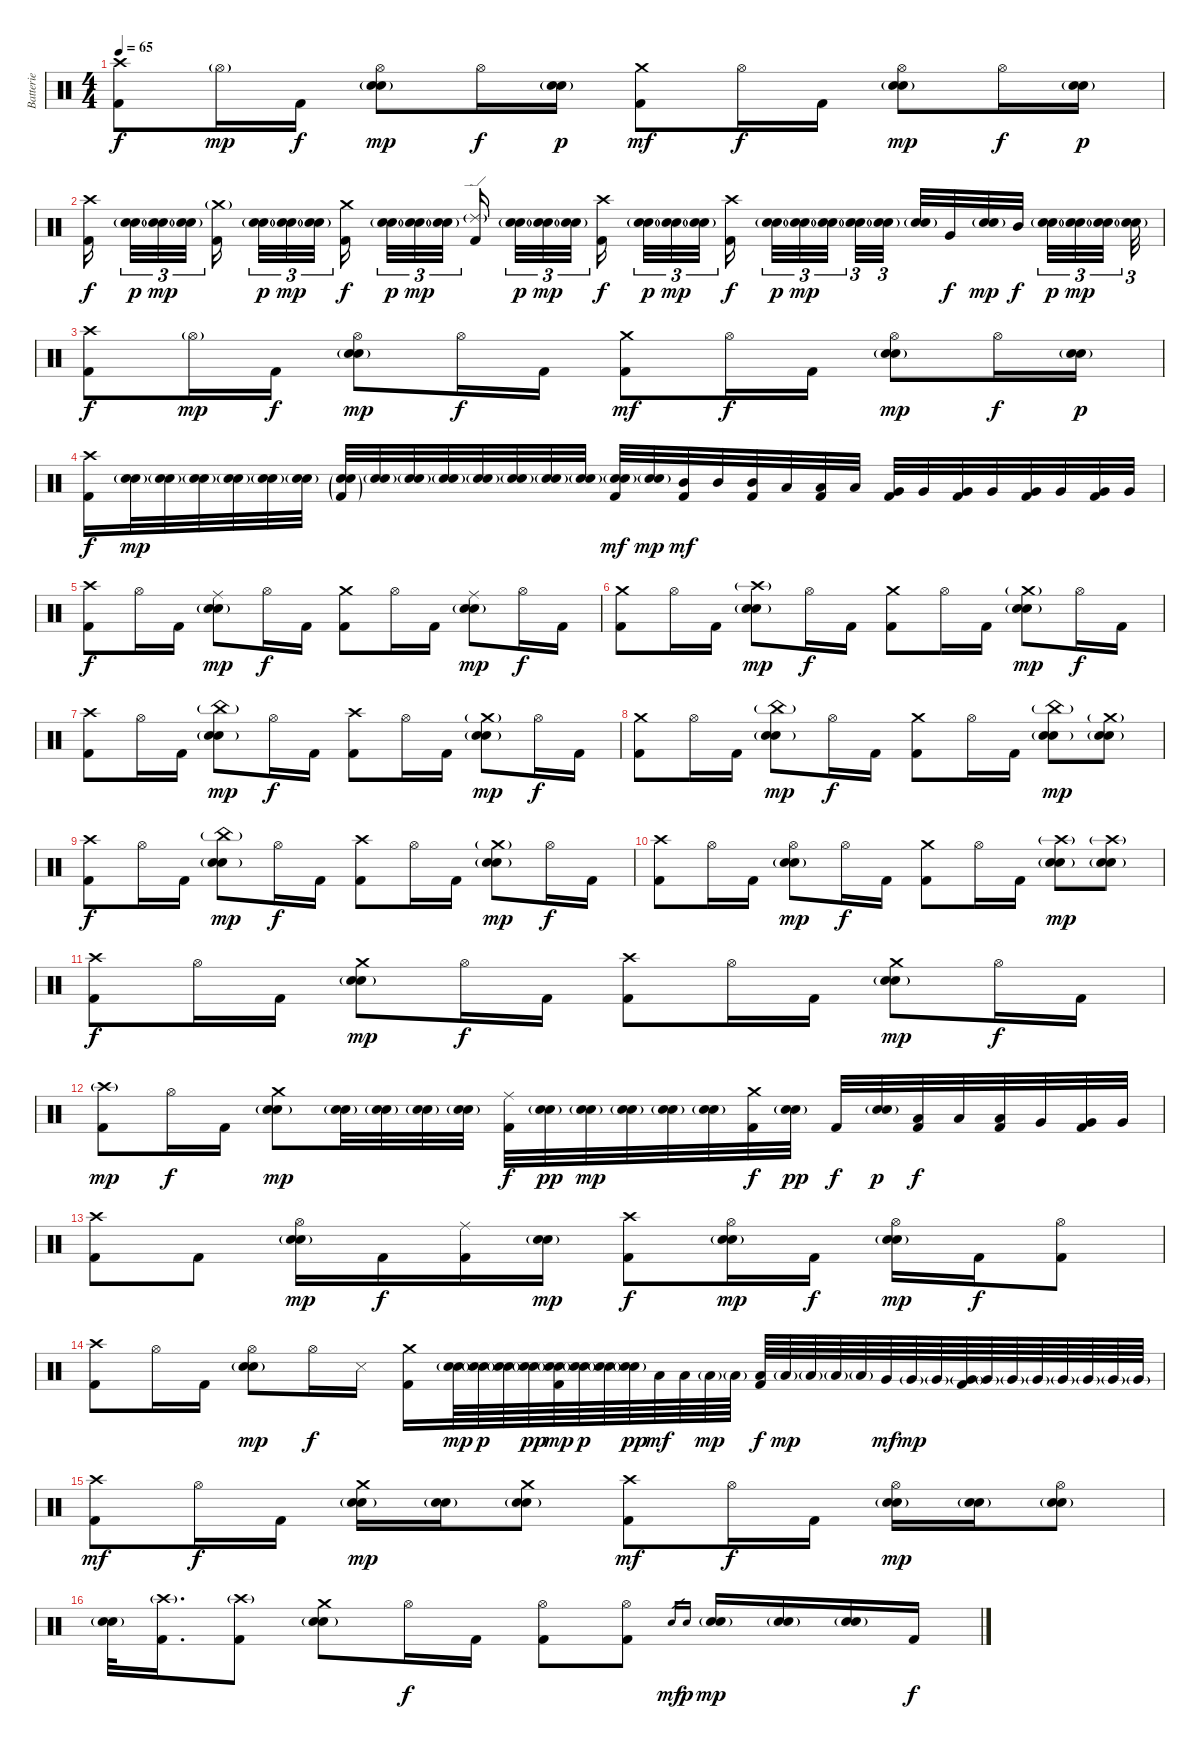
\track ("Batterie" "Batterie") {instrument percussion}
\staff {score}
\articulation defaults
\ts (4 4)
\tempo 65
\clef neutral
\ks c
("Crash high (hit)" "Kick (hit) 2").8{dy f} "Hi-Hat (open)"{g}.16{dy mp} "Kick (hit) 2".16{dy f} ("Hi-Hat (open)" "Electric Snare (hit)" "Snare (hit) 2"{g}).8{dy mp} "Hi-Hat (open)".16{dy f} ("Electric Snare (hit)" "Snare (hit) 2"{g}).16{dy p} ("Crash medium (hit)" "Kick (hit) 2").8{dy mf} "Hi-Hat (open)".16{dy f} "Kick (hit) 2".16 ("Hi-Hat (open)" "Electric Snare (hit)" "Snare (hit) 2"{g}).8{dy mp} "Hi-Hat (open)".16{dy f} ("Electric Snare (hit)" "Snare (hit) 2"{g}).16{dy p} |
("Crash high (hit)" "Kick (hit) 2").16{dy f} ("Electric Snare (hit)" "Snare (hit) 2"{g}).32{tu (3 2) dy p} ("Electric Snare (hit)" "Snare (hit) 2"{g}).32{tu (3 2) dy mp} ("Electric Snare (hit)" "Snare (hit) 2"{g}).32{tu (3 2)} ("Crash medium (hit)"{g} "Kick (hit) 2").16 ("Electric Snare (hit)" "Snare (hit) 2"{g}).32{tu (3 2) dy p} ("Electric Snare (hit)" "Snare (hit) 2"{g}).32{tu (3 2) dy mp} ("Electric Snare (hit)" "Snare (hit) 2"{g}).32{tu (3 2)} ("Crash medium (hit)" "Kick (hit) 2").16{dy f} ("Electric Snare (hit)" "Snare (hit) 2"{g}).32{tu (3 2) dy p} ("Electric Snare (hit)" "Snare (hit) 2"{g}).32{tu (3 2) dy mp} ("Electric Snare (hit)" "Snare (hit) 2"{g}).32{tu (3 2)} ("Ride (edge) 2"{g} "Kick (hit) 2").16 ("Electric Snare (hit)" "Snare (hit) 2"{g}).32{tu (3 2) dy p} ("Electric Snare (hit)" "Snare (hit) 2"{g}).32{tu (3 2) dy mp} ("Electric Snare (hit)" "Snare (hit) 2"{g}).32{tu (3 2)} ("Crash high (hit)" "Kick (hit) 2").16{dy f} ("Electric Snare (hit)" "Snare (hit) 2"{g}).32{tu (3 2) dy p} ("Electric Snare (hit)" "Snare (hit) 2"{g}).32{tu (3 2) dy mp} ("Electric Snare (hit)" "Snare (hit) 2"{g}).32{tu (3 2)} ("Crash high (hit)" "Kick (hit) 2").16{dy f} ("Electric Snare (hit)" "Snare (hit) 2"{g}).32{tu (3 2) dy p} ("Electric Snare (hit)" "Snare (hit) 2"{g}).32{tu (3 2) dy mp} ("Electric Snare (hit)" "Snare (hit) 2"{g}).32{tu (3 2)} ("Electric Snare (hit)" "Snare (hit) 2"{g}).32{tu (3 2)} ("Electric Snare (hit)" "Snare (hit) 2"{g}).32{tu (3 2)} ("Electric Snare (hit)" "Snare (hit) 2"{g}).32 "Very Low Tom (hit)".32{dy f} ("Electric Snare (hit)" "Snare (hit) 2"{g}).32{dy mp} "Mid Tom (hit)".32{dy f} ("Electric Snare (hit)" "Snare (hit) 2"{g}).32{tu (3 2) dy p} ("Electric Snare (hit)" "Snare (hit) 2"{g}).32{tu (3 2) dy mp} ("Electric Snare (hit)" "Snare (hit) 2"{g}).32{tu (3 2)} ("Electric Snare (hit)" "Snare (hit) 2"{g}).32{tu (3 2)} |
("Crash high (hit)" "Kick (hit) 2").8{dy f} "Hi-Hat (open)"{g}.16{dy mp} "Kick (hit) 2".16{dy f} ("Hi-Hat (open)" "Electric Snare (hit)" "Snare (hit) 2"{g}).8{dy mp} "Hi-Hat (open)".16{dy f} "Kick (hit) 2".16 ("Crash medium (hit)" "Kick (hit) 2").8{dy mf} "Hi-Hat (open)".16{dy f} "Kick (hit) 2".16 ("Hi-Hat (open)" "Electric Snare (hit)" "Snare (hit) 2"{g}).8{dy mp} "Hi-Hat (open)".16{dy f} ("Electric Snare (hit)" "Snare (hit) 2"{g}).16{dy p} |
("Crash high (hit)" "Kick (hit) 2").16{dy f} ("Electric Snare (hit)" "Snare (hit) 2"{g}).32{dy mp} ("Electric Snare (hit)" "Snare (hit) 2"{g}).32 ("Electric Snare (hit)" "Snare (hit) 2"{g}).32 ("Electric Snare (hit)" "Snare (hit) 2"{g}).32 ("Electric Snare (hit)" "Snare (hit) 2"{g}).32 ("Electric Snare (hit)" "Snare (hit) 2"{g}).32 ("Electric Snare (hit)" "Snare (hit) 2"{g} "Kick (hit) 2"{g}).32 ("Electric Snare (hit)" "Snare (hit) 2"{g}).32 ("Electric Snare (hit)" "Snare (hit) 2"{g}).32 ("Electric Snare (hit)" "Snare (hit) 2"{g}).32 ("Electric Snare (hit)" "Snare (hit) 2"{g}).32 ("Electric Snare (hit)" "Snare (hit) 2"{g}).32 ("Electric Snare (hit)" "Snare (hit) 2"{g}).32 ("Electric Snare (hit)" "Snare (hit) 2"{g}).32 ("Electric Snare (hit)" "Snare (hit) 2"{g} "Kick (hit) 2").32{dy mf} ("Electric Snare (hit)" "Snare (hit) 2"{g}).32{dy mp} ("Mid Tom (hit)" "Kick (hit) 2").32{dy mf} "Mid Tom (hit)".32 ("Mid Tom (hit)" "Kick (hit) 2").32 "Low Tom (hit)".32 ("Low Tom (hit)" "Kick (hit) 2").32 "Low Tom (hit)".32 ("Very Low Tom (hit)" "Kick (hit) 2").32 "Very Low Tom (hit)".32 ("Very Low Tom (hit)" "Kick (hit) 2").32 "Very Low Tom (hit)".32 ("Very Low Tom (hit)" "Kick (hit) 2").32 "Very Low Tom (hit)".32 ("Very Low Tom (hit)" "Kick (hit) 2").32 "Very Low Tom (hit)".32 |
("Crash high (hit)" "Kick (hit) 2").8{dy f} "Hi-Hat (open)".16 "Kick (hit) 2".16 ("Ride (middle)" "Electric Snare (hit)" "Snare (hit) 2"{g}).8{dy mp} "Hi-Hat (open)".16{dy f} "Kick (hit) 2".16 ("Crash medium (hit)" "Kick (hit) 2").8 "Hi-Hat (open)".16 "Kick (hit) 2".16 ("Ride (middle)" "Electric Snare (hit)" "Snare (hit) 2"{g}).8{dy mp} "Hi-Hat (open)".16{dy f} "Kick (hit) 2".16 |
("Crash medium (hit)" "Kick (hit) 2").8 "Hi-Hat (open)".16 "Kick (hit) 2".16 ("Crash high (hit)"{g} "Electric Snare (hit)" "Snare (hit) 2"{g}).8{dy mp} "Hi-Hat (open)".16{dy f} "Kick (hit) 2".16 ("Crash medium (hit)" "Kick (hit) 2").8 "Hi-Hat (open)".16 "Kick (hit) 2".16 ("Crash medium (hit)"{g} "Electric Snare (hit)" "Snare (hit) 2"{g}).8{dy mp} "Hi-Hat (open)".16{dy f} "Kick (hit) 2".16 |
("Crash high (hit)" "Kick (hit) 2").8 "Hi-Hat (open)".16 "Kick (hit) 2".16 ("China (hit)"{g} "Electric Snare (hit)" "Snare (hit) 2"{g}).8{dy mp} "Hi-Hat (open)".16{dy f} "Kick (hit) 2".16 ("Crash high (hit)" "Kick (hit) 2").8 "Hi-Hat (open)".16 "Kick (hit) 2".16 ("Crash medium (hit)"{g} "Electric Snare (hit)" "Snare (hit) 2"{g}).8{dy mp} "Hi-Hat (open)".16{dy f} "Kick (hit) 2".16 |
("Crash medium (hit)" "Kick (hit) 2").8 "Hi-Hat (open)".16 "Kick (hit) 2".16 ("China (hit)"{g} "Electric Snare (hit)" "Snare (hit) 2"{g}).8{dy mp} "Hi-Hat (open)".16{dy f} "Kick (hit) 2".16 ("Crash medium (hit)" "Kick (hit) 2").8 "Hi-Hat (open)".16 "Kick (hit) 2".16 ("China (hit)"{g} "Electric Snare (hit)" "Snare (hit) 2"{g}).8{dy mp} ("Crash medium (hit)"{g} "Electric Snare (hit)" "Snare (hit) 2"{g}).8 |
("Crash high (hit)" "Kick (hit) 2").8{dy f} "Hi-Hat (open)".16 "Kick (hit) 2".16 ("China (hit)"{g} "Electric Snare (hit)" "Snare (hit) 2"{g}).8{dy mp} "Hi-Hat (open)".16{dy f} "Kick (hit) 2".16 ("Crash high (hit)" "Kick (hit) 2").8 "Hi-Hat (open)".16 "Kick (hit) 2".16 ("Crash medium (hit)"{g} "Electric Snare (hit)" "Snare (hit) 2"{g}).8{dy mp} "Hi-Hat (open)".16{dy f} "Kick (hit) 2".16 |
("Crash high (hit)" "Kick (hit) 2").8 "Hi-Hat (open)".16 "Kick (hit) 2".16 ("Hi-Hat (open)" "Electric Snare (hit)" "Snare (hit) 2"{g}).8{dy mp} "Hi-Hat (open)".16{dy f} "Kick (hit) 2".16 ("Crash medium (hit)" "Kick (hit) 2").8 "Hi-Hat (open)".16 "Kick (hit) 2".16 ("Crash high (hit)"{g} "Electric Snare (hit)" "Snare (hit) 2"{g}).8{dy mp} ("Crash high (hit)"{g} "Electric Snare (hit)" "Snare (hit) 2"{g}).8 |
("Crash high (hit)" "Kick (hit) 2").8{dy f} "Hi-Hat (open)".16 "Kick (hit) 2".16 ("Crash medium (hit)" "Electric Snare (hit)" "Snare (hit) 2"{g}).8{dy mp} "Hi-Hat (open)".16{dy f} "Kick (hit) 2".16 ("Crash high (hit)" "Kick (hit) 2").8 "Hi-Hat (open)".16 "Kick (hit) 2".16 ("Crash medium (hit)" "Electric Snare (hit)" "Snare (hit) 2"{g}).8{dy mp} "Hi-Hat (open)".16{dy f} "Kick (hit) 2".16 |
("Crash high (hit)"{g} "Kick (hit) 2").8{dy mp} "Hi-Hat (open)".16{dy f} "Kick (hit) 2".16 ("Crash medium (hit)" "Electric Snare (hit)" "Snare (hit) 2"{g}).8{dy mp} ("Electric Snare (hit)" "Snare (hit) 2"{g}).32 ("Electric Snare (hit)" "Snare (hit) 2"{g}).32 ("Electric Snare (hit)" "Snare (hit) 2"{g}).32 ("Electric Snare (hit)" "Snare (hit) 2"{g}).32 ("Ride (middle)" "Kick (hit) 2").32{dy f} ("Electric Snare (hit)"{g} "Snare (hit) 2"{g}).32{dy pp} ("Electric Snare (hit)" "Snare (hit) 2"{g}).32{dy mp} ("Electric Snare (hit)" "Snare (hit) 2"{g}).32 ("Electric Snare (hit)" "Snare (hit) 2"{g}).32 ("Electric Snare (hit)" "Snare (hit) 2"{g}).32 ("Crash medium (hit)" "Kick (hit) 2").32{dy f} ("Electric Snare (hit)"{g} "Snare (hit) 2"{g}).32{dy pp} "Kick (hit) 2".32{dy f} ("Electric Snare (hit)" "Snare (hit) 2"{g}).32{dy p} ("Low Tom (hit)" "Kick (hit) 2").32{dy f} "Low Tom (hit)".32 ("Low Tom (hit)" "Kick (hit) 2").32 "Very Low Tom (hit)".32 ("Very Low Tom (hit)" "Kick (hit) 2").32 "Very Low Tom (hit)".32 |
("Crash high (hit)" "Kick (hit) 2").8 "Kick (hit) 2".8 ("Hi-Hat (open)" "Electric Snare (hit)" "Snare (hit) 2"{g}).16{dy mp} "Kick (hit) 2".16{dy f} ("Ride (middle)" "Kick (hit) 2").16 ("Electric Snare (hit)" "Snare (hit) 2"{g}).16{dy mp} ("Crash high (hit)" "Kick (hit) 2").8{dy f} ("Hi-Hat (open)" "Electric Snare (hit)" "Snare (hit) 2"{g}).16{dy mp} "Kick (hit) 2".16{dy f} ("Hi-Hat (open)" "Electric Snare (hit)" "Snare (hit) 2"{g}).16{dy mp} "Kick (hit) 2".16{dy f} ("Hi-Hat (open)" "Kick (hit) 2").8 |
("Crash high (hit)" "Kick (hit) 2").8 "Hi-Hat (open)".16 "Kick (hit) 2".16 ("Hi-Hat (open)" "Electric Snare (hit)" "Snare (hit) 2"{g}).8{dy mp} "Hi-Hat (open)".16{dy f} "Snare (side stick) 3".16 ("Crash medium (hit)" "Kick (hit) 2").16 ("Electric Snare (hit)" "Snare (hit) 2"{g}).64{dy mp} ("Electric Snare (hit)" "Snare (hit) 2"{g}).64{dy p} ("Electric Snare (hit)" "Snare (hit) 2"{g}).64 ("Electric Snare (hit)"{g} "Snare (hit) 2"{g}).64{dy pp} ("Electric Snare (hit)" "Snare (hit) 2"{g} "Kick (hit) 2").64{dy mp} ("Electric Snare (hit)" "Snare (hit) 2"{g}).64{dy p} ("Electric Snare (hit)" "Snare (hit) 2"{g}).64 ("Electric Snare (hit)"{g} "Snare (hit) 2"{g}).64{dy pp} "Low Tom (hit)".64{dy mf} "Low Tom (hit)".64 "Low Tom (hit)"{g}.64{dy mp} "Low Tom (hit)"{g}.64 ("Low Tom (hit)" "Kick (hit) 2").64{dy f} "Low Tom (hit)"{g}.64{dy mp} "Low Tom (hit)"{g}.64 "Low Tom (hit)"{g}.64 "Low Tom (hit)"{g}.64 "Very Low Tom (hit)".64{dy mf} "Very Low Tom (hit)"{g}.64{dy mp} "Very Low Tom (hit)"{g}.64 ("Very Low Tom (hit)"{g} "Kick (hit) 2").64 "Very Low Tom (hit)"{g}.64 "Very Low Tom (hit)"{g}.64 "Very Low Tom (hit)"{g}.64 "Very Low Tom (hit)"{g}.64 "Very Low Tom (hit)"{g}.64 "Very Low Tom (hit)"{g}.64 "Very Low Tom (hit)"{g}.64 |
("Crash high (hit)" "Kick (hit) 2").8{dy mf} "Hi-Hat (open)".16{dy f} "Kick (hit) 2".16 ("Crash medium (hit)" "Electric Snare (hit)" "Snare (hit) 2"{g}).16{dy mp} ("Electric Snare (hit)" "Snare (hit) 2"{g}).16 ("Crash medium (hit)" "Electric Snare (hit)" "Snare (hit) 2"{g}).8 ("Crash high (hit)" "Kick (hit) 2").8{dy mf} "Hi-Hat (open)".16{dy f} "Kick (hit) 2".16 ("Hi-Hat (open)" "Electric Snare (hit)" "Snare (hit) 2"{g}).16{dy mp} ("Electric Snare (hit)" "Snare (hit) 2"{g}).16 ("Hi-Hat (open)" "Electric Snare (hit)" "Snare (hit) 2"{g}).8 |
("Electric Snare (hit)" "Snare (hit) 2"{g}).32 ("Crash high (hit)"{g} "Kick (hit) 2").16{d} ("Crash high (hit)"{g} "Kick (hit) 2").8 ("Crash medium (hit)" "Electric Snare (hit)" "Snare (hit) 2"{g}).8 "Hi-Hat (open)".16{dy f} "Kick (hit) 2".16 ("Hi-Hat (open)" "Kick (hit) 2").8 ("Hi-Hat (open)" "Kick (hit) 2").8 "Electric Snare (hit)".16{gr dy mf} "Snare (hit) 2".16{gr dy p} ("Electric Snare (hit)" "Snare (hit) 2"{g}).16{dy mp} ("Electric Snare (hit)" "Snare (hit) 2"{g}).16 ("Electric Snare (hit)" "Snare (hit) 2"{g}).16 "Kick (hit) 2".16{dy f}
